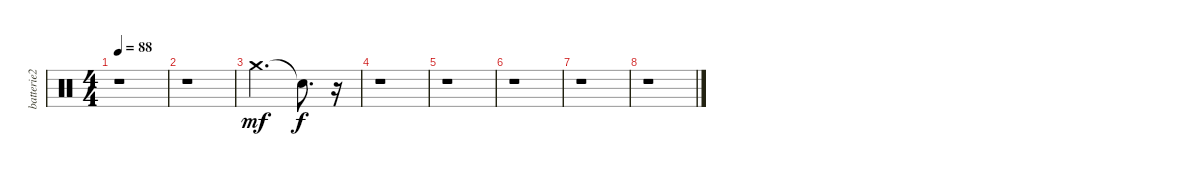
\track ("batterie2" "batterie2") {instrument percussion}
\staff {score}
\articulation defaults
\ts (4 4)
\tempo 88
\clef neutral
\ks c
r.1{dy f} |
r.1 |
"Crash medium (hit)".2{d dy mf} "Snare (hit)"{t}.8{d dy f} r.16 |
r.1 |
r.1 |
r.1 |
r.1 |
r.1
